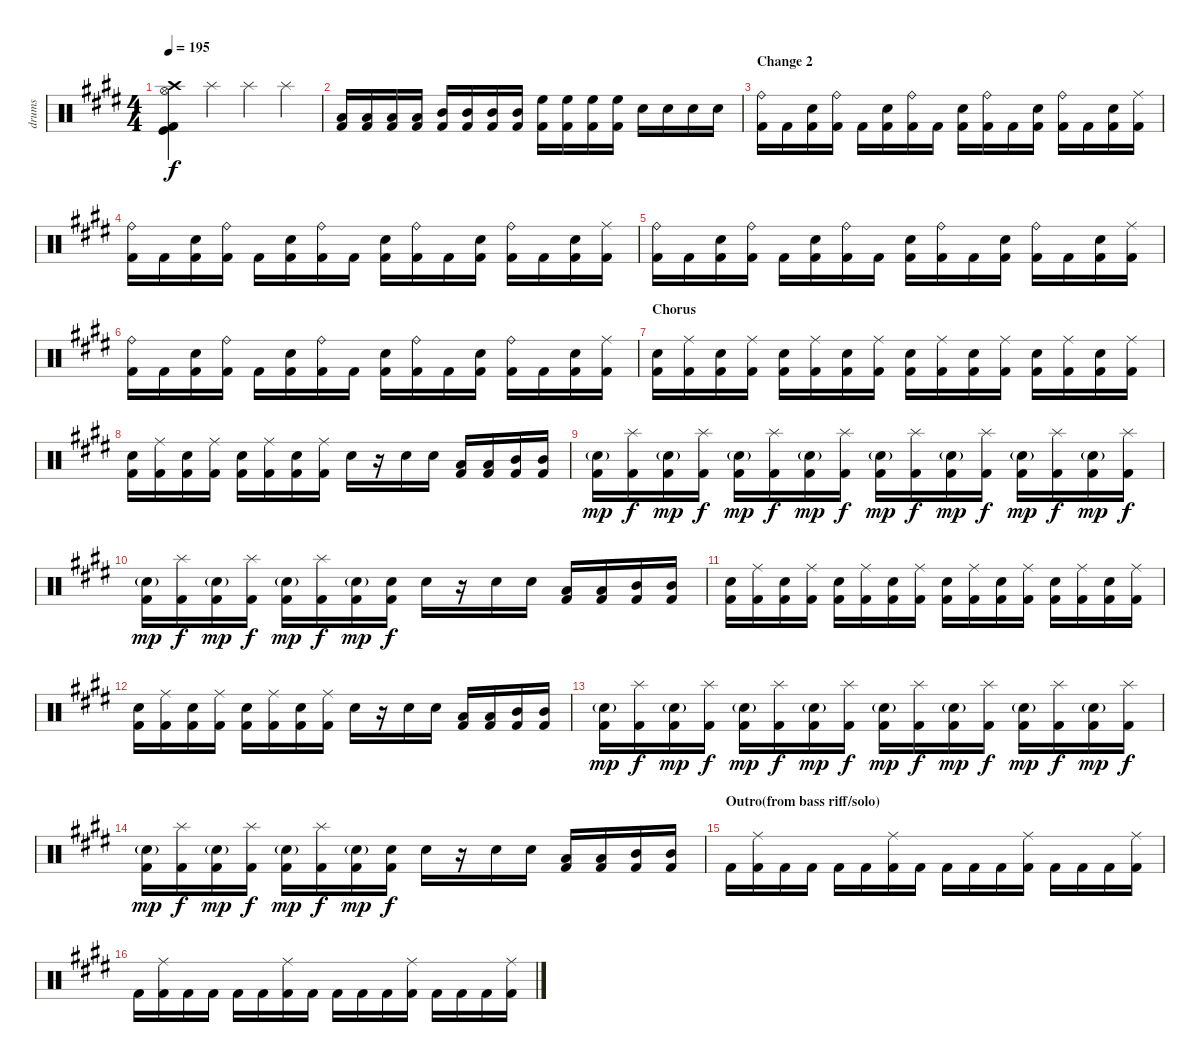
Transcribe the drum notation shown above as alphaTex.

\track ("drums" "drums") {instrument percussion}
\staff {score}
\articulation defaults
\ts (4 4)
\tempo 195
\clef neutral
\ks e
("Crash high (hit)" "Hi-Hat (open)" "Kick (hit)" "Kick (hit) 2").4{dy f} "Splash (hit)".4 "Splash (hit)".4 "Splash (hit)".4 |
("Low Tom (hit)" "Kick (hit) 2").16 ("Low Tom (hit)" "Kick (hit) 2").16 ("Low Tom (hit)" "Kick (hit) 2").16 ("Low Tom (hit)" "Kick (hit) 2").16 ("Mid Tom (hit)" "Kick (hit) 2").16 ("Mid Tom (hit)" "Kick (hit) 2").16 ("Mid Tom (hit)" "Kick (hit) 2").16 ("Mid Tom (hit)" "Kick (hit) 2").16 ("High Floor Tom (hit)" "Kick (hit) 2").16 ("High Floor Tom (hit)" "Kick (hit) 2").16 ("High Floor Tom (hit)" "Kick (hit) 2").16 ("High Floor Tom (hit)" "Kick (hit) 2").16 "Snare (hit) 2".16 "Snare (hit) 2".16 "Snare (hit) 2".16 "Snare (hit) 2".16 |
\section ("" "Change 2")
("Kick (hit) 2" "Ride (bell)").16 "Kick (hit) 2".16 ("Kick (hit) 2" "Snare (hit) 2").16 ("Kick (hit) 2" "Ride (bell)").16 "Kick (hit) 2".16 ("Kick (hit) 2" "Snare (hit) 2").16 ("Kick (hit) 2" "Ride (bell)").16 "Kick (hit) 2".16 ("Kick (hit) 2" "Snare (hit) 2").16 ("Kick (hit) 2" "Ride (bell)").16 "Kick (hit) 2".16 ("Kick (hit) 2" "Snare (hit) 2").16 ("Kick (hit) 2" "Ride (bell)").16 "Kick (hit) 2".16 ("Kick (hit) 2" "Electric Snare (hit)").16 ("Kick (hit) 2" "Ride (middle)").16 |
("Kick (hit) 2" "Ride (bell)").16 "Kick (hit) 2".16 ("Kick (hit) 2" "Snare (hit) 2").16 ("Kick (hit) 2" "Ride (bell)").16 "Kick (hit) 2".16 ("Kick (hit) 2" "Snare (hit) 2").16 ("Kick (hit) 2" "Ride (bell)").16 "Kick (hit) 2".16 ("Kick (hit) 2" "Snare (hit) 2").16 ("Kick (hit) 2" "Ride (bell)").16 "Kick (hit) 2".16 ("Kick (hit) 2" "Snare (hit) 2").16 ("Kick (hit) 2" "Ride (bell)").16 "Kick (hit) 2".16 ("Kick (hit) 2" "Electric Snare (hit)").16 ("Kick (hit) 2" "Ride (middle)").16 |
("Kick (hit) 2" "Ride (bell)").16 "Kick (hit) 2".16 ("Kick (hit) 2" "Snare (hit) 2").16 ("Kick (hit) 2" "Ride (bell)").16 "Kick (hit) 2".16 ("Kick (hit) 2" "Snare (hit) 2").16 ("Kick (hit) 2" "Ride (bell)").16 "Kick (hit) 2".16 ("Kick (hit) 2" "Snare (hit) 2").16 ("Kick (hit) 2" "Ride (bell)").16 "Kick (hit) 2".16 ("Kick (hit) 2" "Snare (hit) 2").16 ("Kick (hit) 2" "Ride (bell)").16 "Kick (hit) 2".16 ("Kick (hit) 2" "Electric Snare (hit)").16 ("Kick (hit) 2" "Ride (middle)").16 |
("Kick (hit) 2" "Ride (bell)").16 "Kick (hit) 2".16 ("Kick (hit) 2" "Snare (hit) 2").16 ("Kick (hit) 2" "Ride (bell)").16 "Kick (hit) 2".16 ("Kick (hit) 2" "Snare (hit) 2").16 ("Kick (hit) 2" "Ride (bell)").16 "Kick (hit) 2".16 ("Kick (hit) 2" "Snare (hit) 2").16 ("Kick (hit) 2" "Ride (bell)").16 "Kick (hit) 2".16 ("Kick (hit) 2" "Snare (hit) 2").16 ("Kick (hit) 2" "Ride (bell)").16 "Kick (hit) 2".16 ("Kick (hit) 2" "Electric Snare (hit)").16 ("Kick (hit) 2" "Ride (middle)").16 |
\section ("" "Chorus")
("Kick (hit) 2" "Electric Snare (hit)").16 ("Kick (hit) 2" "Ride (middle)").16 ("Kick (hit) 2" "Electric Snare (hit)").16 ("Kick (hit) 2" "Ride (middle)").16 ("Kick (hit) 2" "Electric Snare (hit)").16 ("Kick (hit) 2" "Ride (middle)").16 ("Kick (hit) 2" "Electric Snare (hit)").16 ("Kick (hit) 2" "Ride (middle)").16 ("Kick (hit) 2" "Electric Snare (hit)").16 ("Kick (hit) 2" "Ride (middle)").16 ("Kick (hit) 2" "Electric Snare (hit)").16 ("Kick (hit) 2" "Ride (middle)").16 ("Kick (hit) 2" "Electric Snare (hit)").16 ("Kick (hit) 2" "Ride (middle)").16 ("Kick (hit) 2" "Electric Snare (hit)").16 ("Kick (hit) 2" "Ride (middle)").16 |
("Kick (hit) 2" "Electric Snare (hit)").16 ("Kick (hit) 2" "Ride (middle)").16 ("Kick (hit) 2" "Electric Snare (hit)").16 ("Kick (hit) 2" "Ride (middle)").16 ("Kick (hit) 2" "Electric Snare (hit)").16 ("Kick (hit) 2" "Ride (middle)").16 ("Kick (hit) 2" "Electric Snare (hit)").16 ("Kick (hit) 2" "Ride (middle)").16 "Electric Snare (hit)".16 r.16 "Electric Snare (hit)".16 "Electric Snare (hit)".16 ("Low Tom (hit)" "Kick (hit) 2").16 ("Low Tom (hit)" "Kick (hit) 2").16 ("Mid Tom (hit)" "Kick (hit) 2").16 ("Mid Tom (hit)" "Kick (hit) 2").16 |
("Kick (hit) 2" "Electric Snare (hit)"{g}).16{dy mp} ("Kick (hit) 2" "Splash (hit)").16{dy f} ("Kick (hit) 2" "Electric Snare (hit)"{g}).16{dy mp} ("Kick (hit) 2" "Splash (hit)").16{dy f} ("Kick (hit) 2" "Electric Snare (hit)"{g}).16{dy mp} ("Kick (hit) 2" "Splash (hit)").16{dy f} ("Kick (hit) 2" "Electric Snare (hit)"{g}).16{dy mp} ("Kick (hit) 2" "Splash (hit)").16{dy f} ("Kick (hit) 2" "Electric Snare (hit)"{g}).16{dy mp} ("Kick (hit) 2" "Splash (hit)").16{dy f} ("Kick (hit) 2" "Electric Snare (hit)"{g}).16{dy mp} ("Kick (hit) 2" "Splash (hit)").16{dy f} ("Kick (hit) 2" "Electric Snare (hit)"{g}).16{dy mp} ("Kick (hit) 2" "Splash (hit)").16{dy f} ("Kick (hit) 2" "Electric Snare (hit)"{g}).16{dy mp} ("Kick (hit) 2" "Splash (hit)").16{dy f} |
("Kick (hit) 2" "Electric Snare (hit)"{g}).16{dy mp} ("Kick (hit) 2" "Splash (hit)").16{dy f} ("Kick (hit) 2" "Electric Snare (hit)"{g}).16{dy mp} ("Kick (hit) 2" "Splash (hit)").16{dy f} ("Kick (hit) 2" "Electric Snare (hit)"{g}).16{dy mp} ("Kick (hit) 2" "Splash (hit)").16{dy f} ("Kick (hit) 2" "Electric Snare (hit)"{g}).16{dy mp} ("Kick (hit) 2" "Snare (hit)").16{dy f} "Electric Snare (hit)".16 r.16 "Electric Snare (hit)".16 "Electric Snare (hit)".16 ("Low Tom (hit)" "Kick (hit) 2").16 ("Low Tom (hit)" "Kick (hit) 2").16 ("Mid Tom (hit)" "Kick (hit) 2").16 ("Mid Tom (hit)" "Kick (hit) 2").16 |
("Kick (hit) 2" "Electric Snare (hit)").16 ("Kick (hit) 2" "Ride (middle)").16 ("Kick (hit) 2" "Electric Snare (hit)").16 ("Kick (hit) 2" "Ride (middle)").16 ("Kick (hit) 2" "Electric Snare (hit)").16 ("Kick (hit) 2" "Ride (middle)").16 ("Kick (hit) 2" "Electric Snare (hit)").16 ("Kick (hit) 2" "Ride (middle)").16 ("Kick (hit) 2" "Electric Snare (hit)").16 ("Kick (hit) 2" "Ride (middle)").16 ("Kick (hit) 2" "Electric Snare (hit)").16 ("Kick (hit) 2" "Ride (middle)").16 ("Kick (hit) 2" "Electric Snare (hit)").16 ("Kick (hit) 2" "Ride (middle)").16 ("Kick (hit) 2" "Electric Snare (hit)").16 ("Kick (hit) 2" "Ride (middle)").16 |
("Kick (hit) 2" "Electric Snare (hit)").16 ("Kick (hit) 2" "Ride (middle)").16 ("Kick (hit) 2" "Electric Snare (hit)").16 ("Kick (hit) 2" "Ride (middle)").16 ("Kick (hit) 2" "Electric Snare (hit)").16 ("Kick (hit) 2" "Ride (middle)").16 ("Kick (hit) 2" "Electric Snare (hit)").16 ("Kick (hit) 2" "Ride (middle)").16 "Electric Snare (hit)".16 r.16 "Electric Snare (hit)".16 "Electric Snare (hit)".16 ("Low Tom (hit)" "Kick (hit) 2").16 ("Low Tom (hit)" "Kick (hit) 2").16 ("Mid Tom (hit)" "Kick (hit) 2").16 ("Mid Tom (hit)" "Kick (hit) 2").16 |
("Kick (hit) 2" "Electric Snare (hit)"{g}).16{dy mp} ("Kick (hit) 2" "Splash (hit)").16{dy f} ("Kick (hit) 2" "Electric Snare (hit)"{g}).16{dy mp} ("Kick (hit) 2" "Splash (hit)").16{dy f} ("Kick (hit) 2" "Electric Snare (hit)"{g}).16{dy mp} ("Kick (hit) 2" "Splash (hit)").16{dy f} ("Kick (hit) 2" "Electric Snare (hit)"{g}).16{dy mp} ("Kick (hit) 2" "Splash (hit)").16{dy f} ("Kick (hit) 2" "Electric Snare (hit)"{g}).16{dy mp} ("Kick (hit) 2" "Splash (hit)").16{dy f} ("Kick (hit) 2" "Electric Snare (hit)"{g}).16{dy mp} ("Kick (hit) 2" "Splash (hit)").16{dy f} ("Kick (hit) 2" "Electric Snare (hit)"{g}).16{dy mp} ("Kick (hit) 2" "Splash (hit)").16{dy f} ("Kick (hit) 2" "Electric Snare (hit)"{g}).16{dy mp} ("Kick (hit) 2" "Splash (hit)").16{dy f} |
("Kick (hit) 2" "Electric Snare (hit)"{g}).16{dy mp} ("Kick (hit) 2" "Splash (hit)").16{dy f} ("Kick (hit) 2" "Electric Snare (hit)"{g}).16{dy mp} ("Kick (hit) 2" "Splash (hit)").16{dy f} ("Kick (hit) 2" "Electric Snare (hit)"{g}).16{dy mp} ("Kick (hit) 2" "Splash (hit)").16{dy f} ("Kick (hit) 2" "Electric Snare (hit)"{g}).16{dy mp} ("Kick (hit) 2" "Snare (hit)").16{dy f} "Electric Snare (hit)".16 r.16 "Electric Snare (hit)".16 "Electric Snare (hit)".16 ("Low Tom (hit)" "Kick (hit) 2").16 ("Low Tom (hit)" "Kick (hit) 2").16 ("Mid Tom (hit)" "Kick (hit) 2").16 ("Mid Tom (hit)" "Kick (hit) 2").16 |
\section ("" "Outro(from bass riff/solo)")
"Kick (hit) 2".16 ("Kick (hit) 2" "Ride (middle)").16 "Kick (hit) 2".16 "Kick (hit) 2".16 "Kick (hit) 2".16 "Kick (hit) 2".16 ("Kick (hit) 2" "Ride (middle)").16 "Kick (hit) 2".16 "Kick (hit) 2".16 "Kick (hit) 2".16 "Kick (hit) 2".16 ("Kick (hit) 2" "Ride (middle)").16 "Kick (hit) 2".16 "Kick (hit) 2".16 "Kick (hit) 2".16 ("Kick (hit) 2" "Ride (middle)").16 |
"Kick (hit) 2".16 ("Kick (hit) 2" "Ride (middle)").16 "Kick (hit) 2".16 "Kick (hit) 2".16 "Kick (hit) 2".16 "Kick (hit) 2".16 ("Kick (hit) 2" "Ride (middle)").16 "Kick (hit) 2".16 "Kick (hit) 2".16 "Kick (hit) 2".16 "Kick (hit) 2".16 ("Kick (hit) 2" "Ride (middle)").16 "Kick (hit) 2".16 "Kick (hit) 2".16 "Kick (hit) 2".16 ("Kick (hit) 2" "Ride (middle)").16
